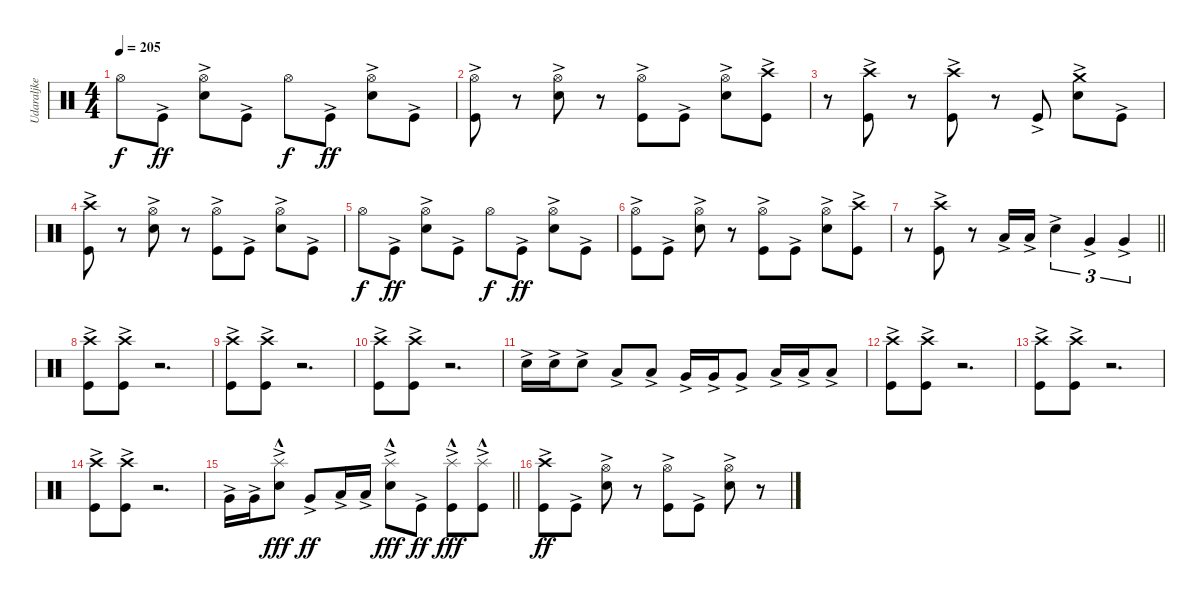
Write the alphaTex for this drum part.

\track ("Udaraljke" "Udaraljke") {instrument percussion}
\staff {score}
\articulation defaults
\ts (4 4)
\tempo 205
\clef neutral
\ks c "Hi-Hat (open)".8{dy f} "Kick (hit)"{ac}.8{dy ff}
("Snare (hit) 2"{ac} "Hi-Hat (open)").8 "Kick (hit)"{ac}.8 "Hi-Hat (open)".8{dy f} "Kick (hit)"{ac}.8{dy ff} ("Hi-Hat (open)" "Snare (hit) 2"{ac}).8 "Kick (hit)"{ac}.8 |
("Kick (hit)"{ac} "Hi-Hat (open)").8 r.8 ("Hi-Hat (open)" "Snare (hit) 2"{ac}).8 r.8 ("Hi-Hat (open)" "Kick (hit)"{ac}).8 "Kick (hit)"{ac}.8 ("Snare (hit) 2"{ac} "Hi-Hat (open)").8 ("Kick (hit)"{ac} "Crash high (hit)").8 |
r.8 ("Kick (hit)"{ac} "Crash high (hit)").8 r.8 ("Kick (hit)"{ac} "Crash high (hit)").8 r.8 "Kick (hit)"{ac}.8 ("Crash medium (hit)" "Snare (hit) 2"{ac}).8 "Kick (hit)"{ac}.8 |
("Kick (hit)"{ac} "Crash high (hit)").8 r.8 ("Hi-Hat (open)" "Snare (hit) 2"{ac}).8 r.8 ("Hi-Hat (open)" "Kick (hit)"{ac}).8 "Kick (hit)"{ac}.8 ("Snare (hit) 2"{ac} "Hi-Hat (open)").8 "Kick (hit)"{ac}.8 |
"Hi-Hat (open)".8{dy f} "Kick (hit)"{ac}.8{dy ff} ("Snare (hit) 2"{ac} "Hi-Hat (open)").8 "Kick (hit)"{ac}.8 "Hi-Hat (open)".8{dy f} "Kick (hit)"{ac}.8{dy ff} ("Hi-Hat (open)" "Snare (hit) 2"{ac}).8 "Kick (hit)"{ac}.8 |
("Kick (hit)"{ac} "Hi-Hat (open)").8 "Kick (hit)"{ac}.8 ("Hi-Hat (open)" "Snare (hit) 2"{ac}).8 r.8 ("Hi-Hat (open)" "Kick (hit)"{ac}).8 "Kick (hit)"{ac}.8 ("Snare (hit) 2"{ac} "Hi-Hat (open)").8 ("Kick (hit)"{ac} "Crash high (hit)").8 |
\barLineRight lightlight
r.8 ("Kick (hit)"{ac} "Crash high (hit)").8 r.8 "Low Tom (hit)"{ac}.16 "Low Tom (hit)"{ac}.16 "Snare (hit) 2"{ac}.4{tu (3 2)} "Very Low Tom (hit)"{ac}.4{tu (3 2)} "Very Low Tom (hit)"{ac}.4{tu (3 2)} |
\section ("" "")
("Kick (hit)"{ac} "Crash high (hit)").8 ("Kick (hit)"{ac} "Crash high (hit)").8 r.2{d} |
("Kick (hit)"{ac} "Crash high (hit)").8 ("Kick (hit)"{ac} "Crash high (hit)").8 r.2{d} |
("Kick (hit)"{ac} "Crash high (hit)").8 ("Kick (hit)"{ac} "Crash high (hit)").8 r.2{d} |
"Snare (hit) 2"{ac}.16 "Snare (hit) 2"{ac}.16 "Snare (hit) 2"{ac}.8 "Low Tom (hit)"{ac}.8 "Low Tom (hit)"{ac}.8 "Very Low Tom (hit)"{ac}.16 "Very Low Tom (hit)"{ac}.16 "Very Low Tom (hit)"{ac}.8 "Low Floor Tom (hit)"{ac}.16 "Low Floor Tom (hit)"{ac}.16 "Low Floor Tom (hit)"{ac}.8 |
("Kick (hit)"{ac} "Crash high (hit)").8 ("Kick (hit)"{ac} "Crash high (hit)").8 r.2{d} |
("Kick (hit)"{ac} "Crash high (hit)").8 ("Kick (hit)"{ac} "Crash high (hit)").8 r.2{d} |
("Kick (hit)"{ac} "Crash high (hit)").8 ("Kick (hit)"{ac} "Crash high (hit)").8 r.2{d} |
\barLineRight lightlight "Very Low Tom (hit)"{ac}.16 "Very Low Tom (hit)"{ac}.16
("Snare (hit) 2"{ac} "Splash (hit)"{hac}).8{dy fff} "Very Low Tom (hit)"{ac}.8{dy ff} "Low Floor Tom (hit)"{ac}.16 "Low Floor Tom (hit)"{ac}.16 ("Snare (hit) 2"{ac} "Splash (hit)"{hac}).8{dy fff} "Kick (hit)"{ac}.8{dy ff} ("Kick (hit)"{ac} "Splash (hit)"{hac}).8{dy fff} ("Kick (hit)"{ac} "Splash (hit)"{hac}).8 |
\section ("" "")
("Kick (hit)"{ac} "Crash high (hit)").8{dy ff} "Kick (hit)"{ac}.8 ("Hi-Hat (open)" "Snare (hit) 2"{ac}).8 r.8 ("Hi-Hat (open)" "Kick (hit)"{ac}).8 "Kick (hit)"{ac}.8 ("Hi-Hat (open)" "Snare (hit) 2"{ac}).8 r.8
